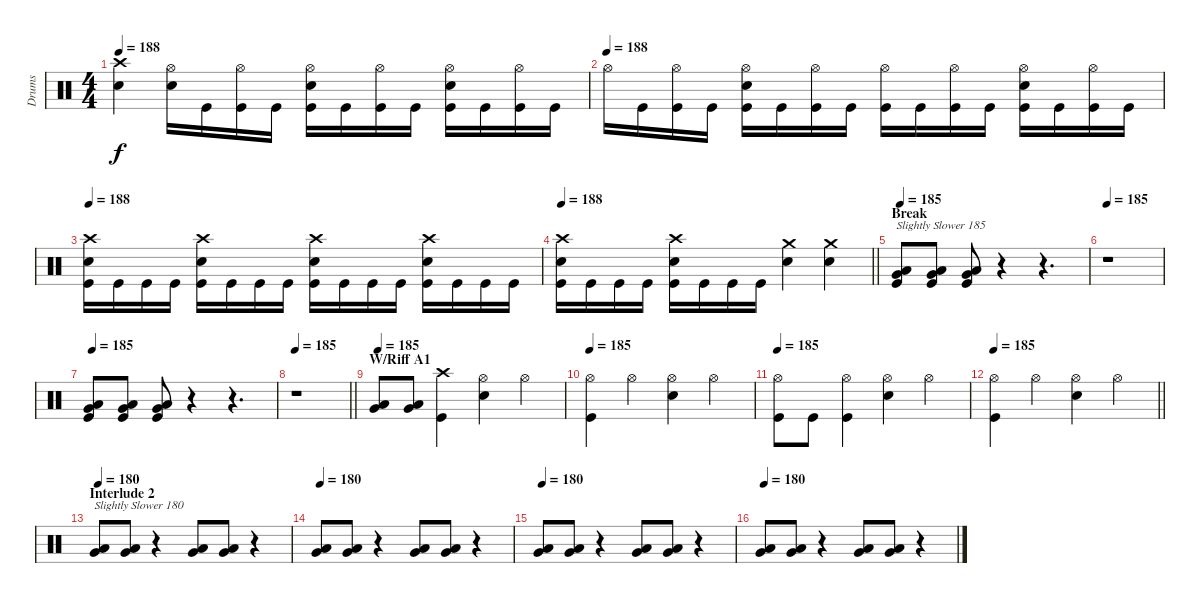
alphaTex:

\track ("Drums" "Drums") {instrument percussion}
\staff {score}
\articulation defaults
\ts (4 4)
\tempo 188
\clef neutral
\ks c
("Crash high (hit)" "Snare (hit) 2").4{dy f} ("Hi-Hat (open)" "Snare (hit) 2").16 "Kick (hit)".16 ("Hi-Hat (open)" "Kick (hit)").16 "Kick (hit)".16 ("Hi-Hat (open)" "Snare (hit) 2" "Kick (hit)").16 "Kick (hit)".16 ("Hi-Hat (open)" "Kick (hit)").16 "Kick (hit)".16 ("Hi-Hat (open)" "Snare (hit) 2" "Kick (hit)").16 "Kick (hit)".16 ("Hi-Hat (open)" "Kick (hit)").16 "Kick (hit)".16 |
\tempo (188)
"Hi-Hat (open)".16 "Kick (hit)".16 ("Hi-Hat (open)" "Kick (hit)").16 "Kick (hit)".16 ("Hi-Hat (open)" "Snare (hit) 2" "Kick (hit)").16 "Kick (hit)".16 ("Hi-Hat (open)" "Kick (hit)").16 "Kick (hit)".16 ("Hi-Hat (open)" "Kick (hit)").16 "Kick (hit)".16 ("Hi-Hat (open)" "Kick (hit)").16 "Kick (hit)".16 ("Hi-Hat (open)" "Snare (hit) 2" "Kick (hit)").16 "Kick (hit)".16 ("Hi-Hat (open)" "Kick (hit)").16 "Kick (hit)".16 |
\tempo 188
("Crash high (hit)" "Snare (hit) 2" "Kick (hit)").16 "Kick (hit)".16 "Kick (hit)".16 "Kick (hit)".16 ("Crash high (hit)" "Snare (hit) 2" "Kick (hit)").16 "Kick (hit)".16 "Kick (hit)".16 "Kick (hit)".16 ("Crash high (hit)" "Snare (hit) 2" "Kick (hit)").16 "Kick (hit)".16 "Kick (hit)".16 "Kick (hit)".16 ("Crash high (hit)" "Snare (hit) 2" "Kick (hit)").16 "Kick (hit)".16 "Kick (hit)".16 "Kick (hit)".16 |
\tempo 188
\barLineRight lightlight
("Crash high (hit)" "Snare (hit) 2" "Kick (hit)").16 "Kick (hit)".16 "Kick (hit)".16 "Kick (hit)".16 ("Crash high (hit)" "Snare (hit) 2" "Kick (hit)").16 "Kick (hit)".16 "Kick (hit)".16 "Kick (hit)".16 ("Crash medium (hit)" "Snare (hit) 2").4 ("Crash medium (hit)" "Snare (hit) 2").4 |
\section ("" "Break")
\tempo 185
("Very Low Tom (hit)" "Low Floor Tom (hit)" "Kick (hit)").8{txt "Slightly Slower 185"} ("Very Low Tom (hit)" "Low Floor Tom (hit)" "Kick (hit)").8 ("Very Low Tom (hit)" "Low Floor Tom (hit)" "Kick (hit)").8 r.4 r.4{d} |
\tempo 185
r.1 |
\tempo 185
("Very Low Tom (hit)" "Low Floor Tom (hit)" "Kick (hit)").8 ("Very Low Tom (hit)" "Low Floor Tom (hit)" "Kick (hit)").8 ("Very Low Tom (hit)" "Low Floor Tom (hit)" "Kick (hit)").8 r.4 r.4{d} |
\tempo 185
\barLineRight lightlight
r.1 |
\section ("" "W/Riff A1")
\tempo 185
("Very Low Tom (hit)" "Low Floor Tom (hit)").8 ("Very Low Tom (hit)" "Low Floor Tom (hit)").8 ("Crash high (hit)" "Kick (hit)").4 ("Hi-Hat (open)" "Snare (hit) 2").4 "Hi-Hat (open)".4 |
\tempo 185
("Hi-Hat (open)" "Kick (hit)").4 "Hi-Hat (open)".4 ("Hi-Hat (open)" "Snare (hit) 2").4 "Hi-Hat (open)".4 |
\tempo 185
("Hi-Hat (open)" "Kick (hit)").8 "Kick (hit)".8 ("Hi-Hat (open)" "Kick (hit)").4 ("Hi-Hat (open)" "Snare (hit) 2").4 "Hi-Hat (open)".4 |
\tempo 185
\barLineRight lightlight
("Hi-Hat (open)" "Kick (hit)").4 "Hi-Hat (open)".4 ("Hi-Hat (open)" "Snare (hit) 2").4 "Hi-Hat (open)".4 |
\section ("" "Interlude 2")
\tempo 180
("Very Low Tom (hit)" "Low Floor Tom (hit)").8{txt "Slightly Slower 180"} ("Very Low Tom (hit)" "Low Floor Tom (hit)").8 r.4 ("Low Floor Tom (hit)" "Very Low Tom (hit)").8 ("Low Floor Tom (hit)" "Very Low Tom (hit)").8 r.4 |
\tempo 180
("Very Low Tom (hit)" "Low Floor Tom (hit)").8 ("Very Low Tom (hit)" "Low Floor Tom (hit)").8 r.4 ("Low Floor Tom (hit)" "Very Low Tom (hit)").8 ("Low Floor Tom (hit)" "Very Low Tom (hit)").8 r.4 |
\tempo 180
("Very Low Tom (hit)" "Low Floor Tom (hit)").8 ("Very Low Tom (hit)" "Low Floor Tom (hit)").8 r.4 ("Low Floor Tom (hit)" "Very Low Tom (hit)").8 ("Low Floor Tom (hit)" "Very Low Tom (hit)").8 r.4 |
\tempo 180
("Very Low Tom (hit)" "Low Floor Tom (hit)").8 ("Very Low Tom (hit)" "Low Floor Tom (hit)").8 r.4 ("Low Floor Tom (hit)" "Very Low Tom (hit)").8 ("Low Floor Tom (hit)" "Very Low Tom (hit)").8 r.4
